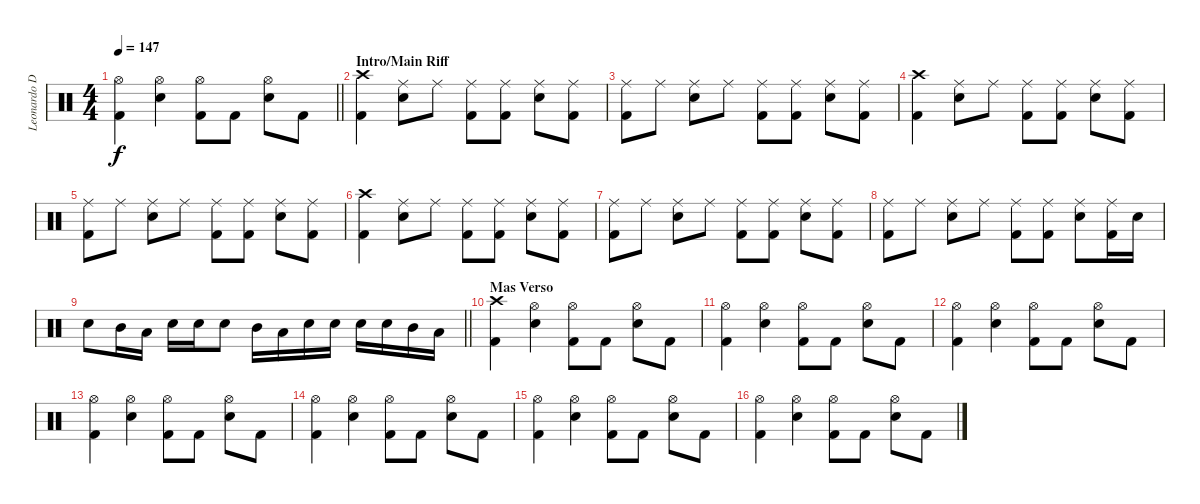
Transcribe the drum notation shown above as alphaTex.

\track ("Leonardo De Cecco" "Leonardo D") {instrument percussion}
\staff {score}
\articulation defaults
\ts (4 4)
\tempo 147
\clef neutral
\barLineRight lightlight
\ks c
("Hi-Hat (open)" "Kick (hit) 2").4{dy f} ("Hi-Hat (open)" "Electric Snare (hit)").4 ("Hi-Hat (open)" "Kick (hit) 2").8 "Kick (hit) 2".8 ("Hi-Hat (open)" "Electric Snare (hit)").8 "Kick (hit) 2".8 |
\section ("" "Intro/Main Riff")
("Crash high (hit)" "Kick (hit) 2").4 ("Ride (middle)" "Electric Snare (hit)").8 "Ride (middle)".8 ("Ride (middle)" "Kick (hit) 2").8 ("Ride (middle)" "Kick (hit) 2").8 ("Ride (middle)" "Electric Snare (hit)").8 ("Ride (middle)" "Kick (hit) 2").8 |
("Ride (middle)" "Kick (hit) 2").8 "Ride (middle)".8 ("Ride (middle)" "Electric Snare (hit)").8 "Ride (middle)".8 ("Ride (middle)" "Kick (hit) 2").8 ("Ride (middle)" "Kick (hit) 2").8 ("Ride (middle)" "Electric Snare (hit)").8 ("Ride (middle)" "Kick (hit) 2").8 |
("Crash high (hit)" "Kick (hit) 2").4 ("Ride (middle)" "Electric Snare (hit)").8 "Ride (middle)".8 ("Ride (middle)" "Kick (hit) 2").8 ("Ride (middle)" "Kick (hit) 2").8 ("Ride (middle)" "Electric Snare (hit)").8 ("Ride (middle)" "Kick (hit) 2").8 |
("Ride (middle)" "Kick (hit) 2").8 "Ride (middle)".8 ("Ride (middle)" "Electric Snare (hit)").8 "Ride (middle)".8 ("Ride (middle)" "Kick (hit) 2").8 ("Ride (middle)" "Kick (hit) 2").8 ("Ride (middle)" "Electric Snare (hit)").8 ("Ride (middle)" "Kick (hit) 2").8 |
("Crash high (hit)" "Kick (hit) 2").4 ("Ride (middle)" "Electric Snare (hit)").8 "Ride (middle)".8 ("Ride (middle)" "Kick (hit) 2").8 ("Ride (middle)" "Kick (hit) 2").8 ("Ride (middle)" "Electric Snare (hit)").8 ("Ride (middle)" "Kick (hit) 2").8 |
("Ride (middle)" "Kick (hit) 2").8 "Ride (middle)".8 ("Ride (middle)" "Electric Snare (hit)").8 "Ride (middle)".8 ("Ride (middle)" "Kick (hit) 2").8 ("Ride (middle)" "Kick (hit) 2").8 ("Ride (middle)" "Electric Snare (hit)").8 ("Ride (middle)" "Kick (hit) 2").8 |
("Ride (middle)" "Kick (hit) 2").8 "Ride (middle)".8 ("Ride (middle)" "Electric Snare (hit)").8 "Ride (middle)".8 ("Ride (middle)" "Kick (hit) 2").8 ("Ride (middle)" "Kick (hit) 2").8 ("Ride (middle)" "Electric Snare (hit)").8 ("Ride (middle)" "Kick (hit) 2").16 "Electric Snare (hit)".16 |
\barLineRight lightlight "Electric Snare (hit)".8 "Mid Tom (hit)".16 "Low Tom (hit)".16 "Electric Snare (hit)".16 "Electric Snare (hit)".16 "Electric Snare (hit)".8 "Mid Tom (hit)".16 "Low Tom (hit)".16 "Electric Snare (hit)".16 "Electric Snare (hit)".16 "Electric Snare (hit)".16 "Electric Snare (hit)".16 "Mid Tom (hit)".16 "Low Tom (hit)".16
|
\section ("" "Mas Verso")
("Crash high (hit)" "Kick (hit) 2").4 ("Hi-Hat (open)" "Electric Snare (hit)").4 ("Hi-Hat (open)" "Kick (hit) 2").8 "Kick (hit) 2".8 ("Hi-Hat (open)" "Electric Snare (hit)").8 "Kick (hit) 2".8 |
("Hi-Hat (open)" "Kick (hit) 2").4 ("Hi-Hat (open)" "Electric Snare (hit)").4 ("Hi-Hat (open)" "Kick (hit) 2").8 "Kick (hit) 2".8 ("Hi-Hat (open)" "Electric Snare (hit)").8 "Kick (hit) 2".8 |
("Hi-Hat (open)" "Kick (hit) 2").4 ("Hi-Hat (open)" "Electric Snare (hit)").4 ("Hi-Hat (open)" "Kick (hit) 2").8 "Kick (hit) 2".8 ("Hi-Hat (open)" "Electric Snare (hit)").8 "Kick (hit) 2".8 |
("Hi-Hat (open)" "Kick (hit) 2").4 ("Hi-Hat (open)" "Electric Snare (hit)").4 ("Hi-Hat (open)" "Kick (hit) 2").8 "Kick (hit) 2".8 ("Hi-Hat (open)" "Electric Snare (hit)").8 "Kick (hit) 2".8 |
("Hi-Hat (open)" "Kick (hit) 2").4 ("Hi-Hat (open)" "Electric Snare (hit)").4 ("Hi-Hat (open)" "Kick (hit) 2").8 "Kick (hit) 2".8 ("Hi-Hat (open)" "Electric Snare (hit)").8 "Kick (hit) 2".8 |
("Hi-Hat (open)" "Kick (hit) 2").4 ("Hi-Hat (open)" "Electric Snare (hit)").4 ("Hi-Hat (open)" "Kick (hit) 2").8 "Kick (hit) 2".8 ("Hi-Hat (open)" "Electric Snare (hit)").8 "Kick (hit) 2".8 |
("Hi-Hat (open)" "Kick (hit) 2").4 ("Hi-Hat (open)" "Electric Snare (hit)").4 ("Hi-Hat (open)" "Kick (hit) 2").8 "Kick (hit) 2".8 ("Hi-Hat (open)" "Electric Snare (hit)").8 "Kick (hit) 2".8
